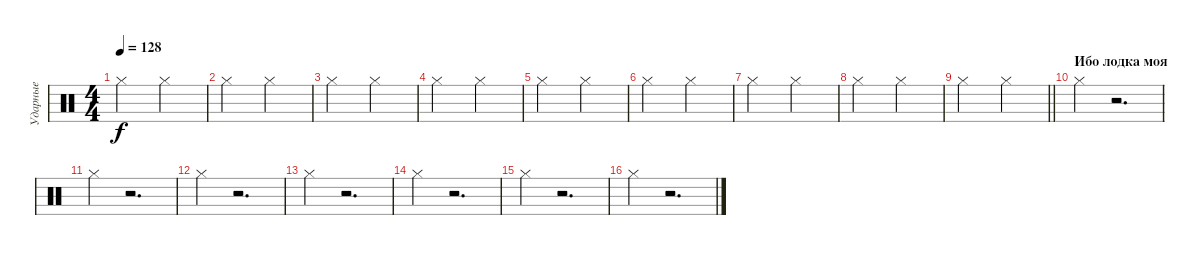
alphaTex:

\track ("Ударные" "Ударные") {instrument percussion}
\staff {score}
\articulation defaults
\ts (4 4)
\tempo 128
\clef neutral
\ks c "Hi-Hat (closed)".2{dy f} "Hi-Hat (closed)".2
|
"Hi-Hat (closed)".2 "Hi-Hat (closed)".2 |
"Hi-Hat (closed)".2 "Hi-Hat (closed)".2 |
"Hi-Hat (closed)".2 "Hi-Hat (closed)".2 |
"Hi-Hat (closed)".2 "Hi-Hat (closed)".2 |
"Hi-Hat (closed)".2 "Hi-Hat (closed)".2 |
"Hi-Hat (closed)".2 "Hi-Hat (closed)".2 |
"Hi-Hat (closed)".2 "Hi-Hat (closed)".2 |
\barLineRight lightlight "Hi-Hat (closed)".2 "Hi-Hat (closed)".2
|
\section ("" "Ибо лодка моя")
"Hi-Hat (closed)".4 r.2{d} |
"Hi-Hat (closed)".4 r.2{d} |
"Hi-Hat (closed)".4 r.2{d} |
"Hi-Hat (closed)".4 r.2{d} |
"Hi-Hat (closed)".4 r.2{d} |
"Hi-Hat (closed)".4 r.2{d} |
"Hi-Hat (closed)".4 r.2{d}
